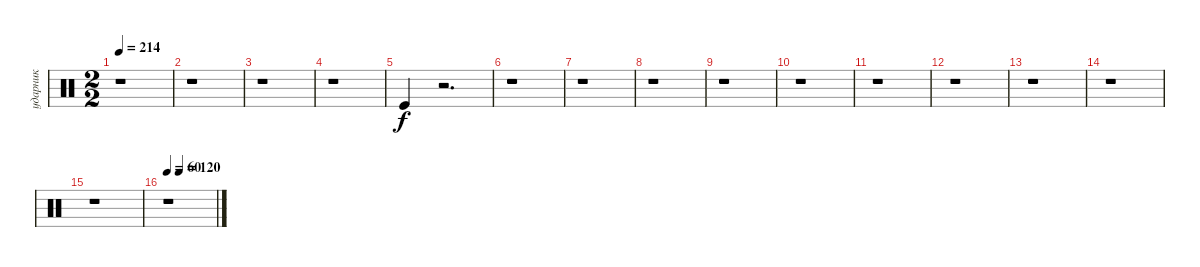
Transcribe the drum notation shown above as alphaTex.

\track ("ударник" "ударник") {instrument percussion}
\staff {score}
\articulation defaults
\ts (2 2)
\tempo 214
\clef neutral
\ks c
r.1{dy f} |
r.1 |
r.1 |
r.1 |
"Kick (hit)".4 r.2{d} |
r.1 |
r.1 |
r.1 |
r.1 |
r.1 |
r.1 |
r.1 |
r.1 |
r.1 |
r.1 |
\tempo 60
\tempo (120 0.25)
r.1
